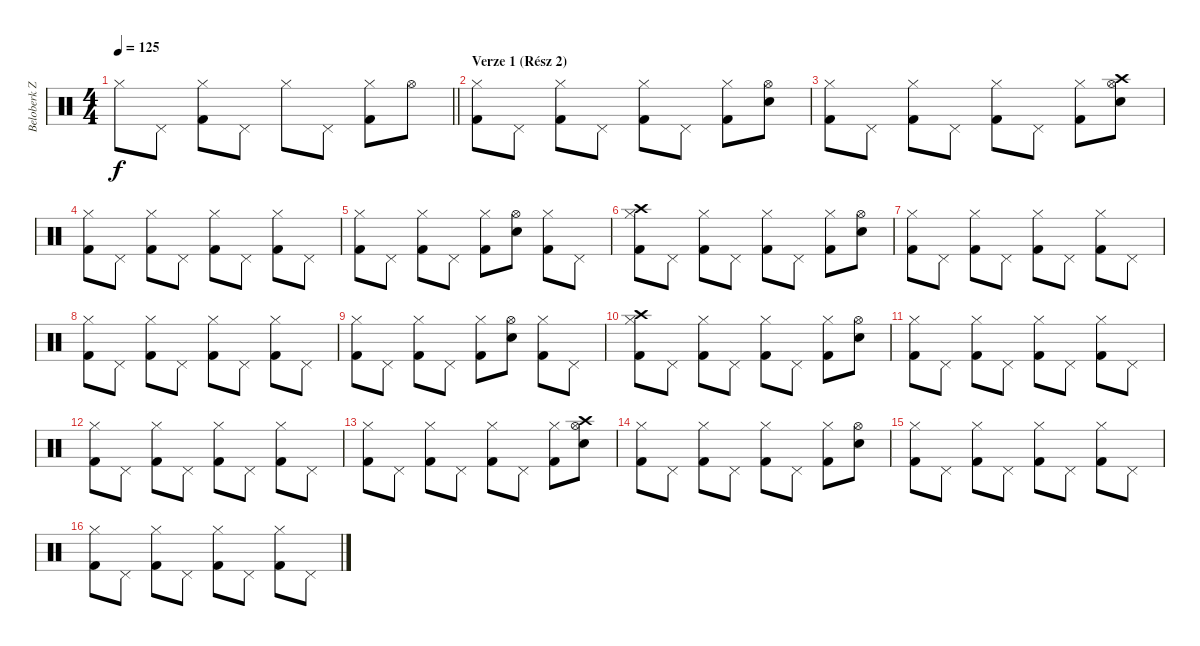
\track ("Beloberk Zsolt - Dobok" "Beloberk Z") {instrument percussion}
\staff {score}
\articulation defaults
\ts (4 4)
\tempo 125
\clef neutral
\barLineRight lightlight
\ks c "Hi-Hat (closed)".8{dy f} "Pedal Hi-Hat (hit)".8
("Hi-Hat (closed)" "Kick (hit) 2").8 "Pedal Hi-Hat (hit)".8 "Hi-Hat (closed)".8 "Pedal Hi-Hat (hit)".8 ("Hi-Hat (closed)" "Kick (hit) 2").8 "Hi-Hat (open)".8 |
\section ("" "Verze 1 (Rész 2)")
("Hi-Hat (closed)" "Kick (hit) 2").8 "Pedal Hi-Hat (hit)".8 ("Hi-Hat (closed)" "Kick (hit) 2").8 "Pedal Hi-Hat (hit)".8 ("Hi-Hat (closed)" "Kick (hit) 2").8 "Pedal Hi-Hat (hit)".8 ("Hi-Hat (closed)" "Kick (hit) 2").8 ("Hi-Hat (open)" "Electric Snare (hit)").8 |
("Hi-Hat (closed)" "Kick (hit) 2").8 "Pedal Hi-Hat (hit)".8 ("Hi-Hat (closed)" "Kick (hit) 2").8 "Pedal Hi-Hat (hit)".8 ("Hi-Hat (closed)" "Kick (hit) 2").8 "Pedal Hi-Hat (hit)".8 ("Hi-Hat (closed)" "Kick (hit) 2").8 ("Crash high (hit)" "Hi-Hat (open)" "Electric Snare (hit)").8 |
("Hi-Hat (closed)" "Kick (hit) 2").8 "Pedal Hi-Hat (hit)".8 ("Hi-Hat (closed)" "Kick (hit) 2").8 "Pedal Hi-Hat (hit)".8 ("Hi-Hat (closed)" "Kick (hit) 2").8 "Pedal Hi-Hat (hit)".8 ("Hi-Hat (closed)" "Kick (hit) 2").8 "Pedal Hi-Hat (hit)".8 |
("Hi-Hat (closed)" "Kick (hit) 2").8 "Pedal Hi-Hat (hit)".8 ("Hi-Hat (closed)" "Kick (hit) 2").8 "Pedal Hi-Hat (hit)".8 ("Hi-Hat (closed)" "Kick (hit) 2").8 ("Hi-Hat (open)" "Electric Snare (hit)").8 ("Hi-Hat (closed)" "Kick (hit) 2").8 "Pedal Hi-Hat (hit)".8 |
("Crash high (hit)" "Hi-Hat (closed)" "Kick (hit) 2").8 "Pedal Hi-Hat (hit)".8 ("Hi-Hat (closed)" "Kick (hit) 2").8 "Pedal Hi-Hat (hit)".8 ("Hi-Hat (closed)" "Kick (hit) 2").8 "Pedal Hi-Hat (hit)".8 ("Hi-Hat (closed)" "Kick (hit) 2").8 ("Hi-Hat (open)" "Electric Snare (hit)").8 |
("Hi-Hat (closed)" "Kick (hit) 2").8 "Pedal Hi-Hat (hit)".8 ("Hi-Hat (closed)" "Kick (hit) 2").8 "Pedal Hi-Hat (hit)".8 ("Hi-Hat (closed)" "Kick (hit) 2").8 "Pedal Hi-Hat (hit)".8 ("Hi-Hat (closed)" "Kick (hit) 2").8 "Pedal Hi-Hat (hit)".8 |
("Hi-Hat (closed)" "Kick (hit) 2").8 "Pedal Hi-Hat (hit)".8 ("Hi-Hat (closed)" "Kick (hit) 2").8 "Pedal Hi-Hat (hit)".8 ("Hi-Hat (closed)" "Kick (hit) 2").8 "Pedal Hi-Hat (hit)".8 ("Hi-Hat (closed)" "Kick (hit) 2").8 "Pedal Hi-Hat (hit)".8 |
("Hi-Hat (closed)" "Kick (hit) 2").8 "Pedal Hi-Hat (hit)".8 ("Hi-Hat (closed)" "Kick (hit) 2").8 "Pedal Hi-Hat (hit)".8 ("Hi-Hat (closed)" "Kick (hit) 2").8 ("Hi-Hat (open)" "Electric Snare (hit)").8 ("Hi-Hat (closed)" "Kick (hit) 2").8 "Pedal Hi-Hat (hit)".8 |
("Crash high (hit)" "Hi-Hat (closed)" "Kick (hit) 2").8 "Pedal Hi-Hat (hit)".8 ("Hi-Hat (closed)" "Kick (hit) 2").8 "Pedal Hi-Hat (hit)".8 ("Hi-Hat (closed)" "Kick (hit) 2").8 "Pedal Hi-Hat (hit)".8 ("Hi-Hat (closed)" "Kick (hit) 2").8 ("Hi-Hat (open)" "Electric Snare (hit)").8 |
("Hi-Hat (closed)" "Kick (hit) 2").8 "Pedal Hi-Hat (hit)".8 ("Hi-Hat (closed)" "Kick (hit) 2").8 "Pedal Hi-Hat (hit)".8 ("Hi-Hat (closed)" "Kick (hit) 2").8 "Pedal Hi-Hat (hit)".8 ("Hi-Hat (closed)" "Kick (hit) 2").8 "Pedal Hi-Hat (hit)".8 |
("Hi-Hat (closed)" "Kick (hit) 2").8 "Pedal Hi-Hat (hit)".8 ("Hi-Hat (closed)" "Kick (hit) 2").8 "Pedal Hi-Hat (hit)".8 ("Hi-Hat (closed)" "Kick (hit) 2").8 "Pedal Hi-Hat (hit)".8 ("Hi-Hat (closed)" "Kick (hit) 2").8 "Pedal Hi-Hat (hit)".8 |
("Hi-Hat (closed)" "Kick (hit) 2").8 "Pedal Hi-Hat (hit)".8 ("Hi-Hat (closed)" "Kick (hit) 2").8 "Pedal Hi-Hat (hit)".8 ("Hi-Hat (closed)" "Kick (hit) 2").8 "Pedal Hi-Hat (hit)".8 ("Hi-Hat (closed)" "Kick (hit) 2").8 ("Crash high (hit)" "Hi-Hat (open)" "Electric Snare (hit)").8 |
("Hi-Hat (closed)" "Kick (hit) 2").8 "Pedal Hi-Hat (hit)".8 ("Hi-Hat (closed)" "Kick (hit) 2").8 "Pedal Hi-Hat (hit)".8 ("Hi-Hat (closed)" "Kick (hit) 2").8 "Pedal Hi-Hat (hit)".8 ("Hi-Hat (closed)" "Kick (hit) 2").8 ("Hi-Hat (open)" "Electric Snare (hit)").8 |
("Hi-Hat (closed)" "Kick (hit) 2").8 "Pedal Hi-Hat (hit)".8 ("Hi-Hat (closed)" "Kick (hit) 2").8 "Pedal Hi-Hat (hit)".8 ("Hi-Hat (closed)" "Kick (hit) 2").8 "Pedal Hi-Hat (hit)".8 ("Hi-Hat (closed)" "Kick (hit) 2").8 "Pedal Hi-Hat (hit)".8 |
("Hi-Hat (closed)" "Kick (hit) 2").8 "Pedal Hi-Hat (hit)".8 ("Hi-Hat (closed)" "Kick (hit) 2").8 "Pedal Hi-Hat (hit)".8 ("Hi-Hat (closed)" "Kick (hit) 2").8 "Pedal Hi-Hat (hit)".8 ("Hi-Hat (closed)" "Kick (hit) 2").8 "Pedal Hi-Hat (hit)".8
